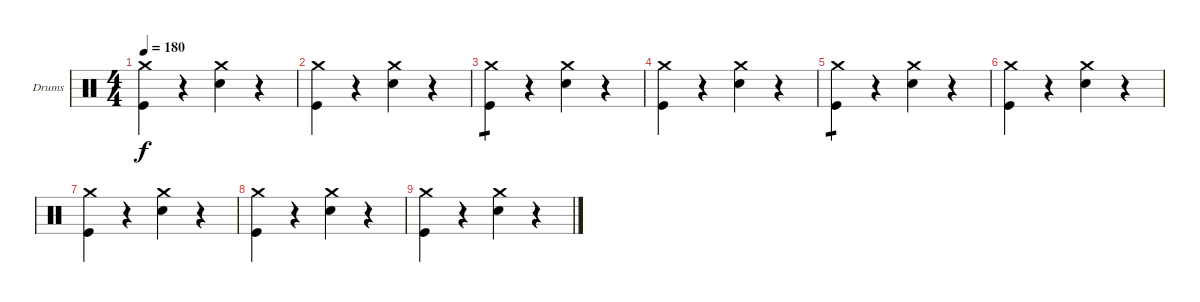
\bracketExtendMode groupsimilarinstruments
\firstSystemTrackNameOrientation horizontal
\otherSystemsTrackNameOrientation horizontal
\track ("Drumkit" "Drums") {instrument percussion}
\staff {score}
\articulation defaults
\ts (4 4)
\tempo 180
\clef neutral
\scale
0.333333
\ks c
("Crash medium (hit)" "Kick (hit)").4{dy f} r.4 ("Crash medium (hit)" "Snare (hit) 2").4 r.4 |
\scale
0.333333 ("Crash medium (hit)" "Kick (hit)").4 r.4 ("Crash medium (hit)" "Snare (hit) 2").4 r.4 |
\scale
0.333333 ("Crash medium (hit)" "Kick (hit)").4{tp 1} r.4 ("Crash medium (hit)" "Snare (hit) 2").4 r.4 |
\scale
0.333333 ("Crash medium (hit)" "Kick (hit)").4 r.4 ("Crash medium (hit)" "Snare (hit) 2").4 r.4 |
\scale
0.333333 ("Crash medium (hit)" "Kick (hit)").4{tp 1} r.4 ("Crash medium (hit)" "Snare (hit) 2").4 r.4 |
\scale
0.333333 ("Crash medium (hit)" "Kick (hit)").4 r.4 ("Crash medium (hit)" "Snare (hit) 2").4 r.4 |
\scale
0.333333 ("Crash medium (hit)" "Kick (hit)").4 r.4 ("Crash medium (hit)" "Snare (hit) 2").4 r.4 |
\scale
0.333333 ("Crash medium (hit)" "Kick (hit)").4 r.4 ("Crash medium (hit)" "Snare (hit) 2").4 r.4 |
\scale
0.333333 ("Crash medium (hit)" "Kick (hit)").4 r.4 ("Crash medium (hit)" "Snare (hit) 2").4 r.4
